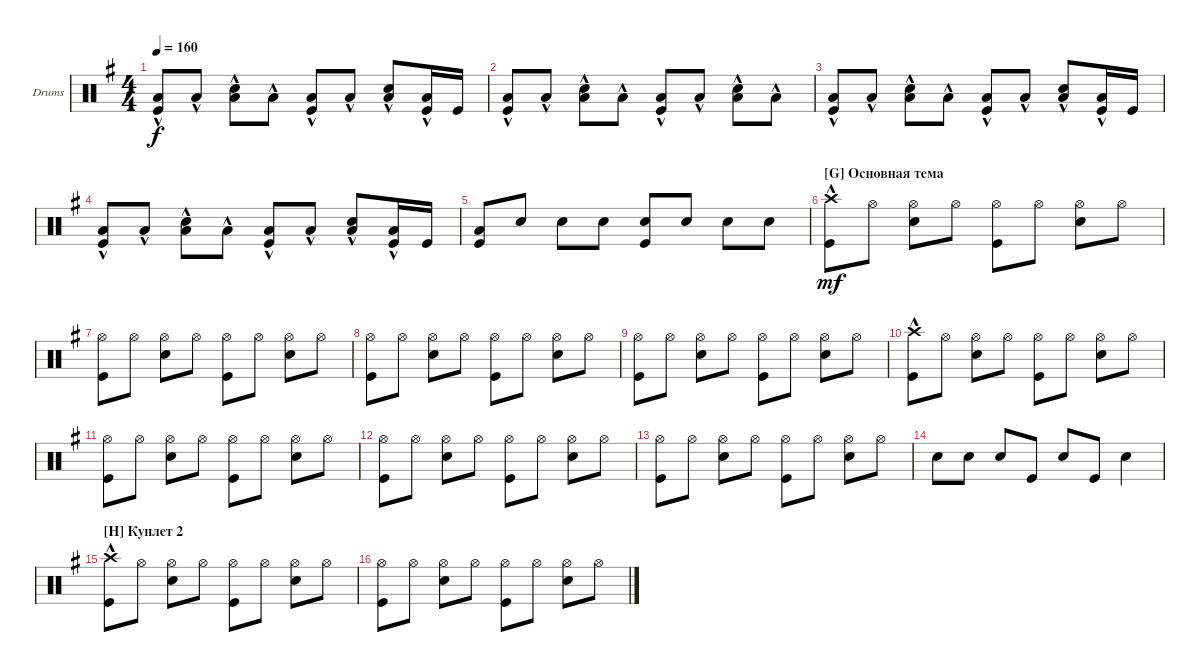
\defaultSystemsLayout 4
\bracketExtendMode groupsimilarinstruments
\firstSystemTrackNameOrientation horizontal
\otherSystemsTrackNameOrientation horizontal
\track ("Drumkit" "Drums") {instrument percussion}
\staff {score}
\articulation defaults
\ts (4 4)
\tempo 160
\clef neutral
\ks eminor
("Kick (hit)" "Low Tom (hit)"{hac}).8{dy f} "Low Tom (hit)"{hac}.8 ("Snare (hit) 2" "Low Tom (hit)"{hac}).8 "Low Tom (hit)"{hac}.8 ("Kick (hit)" "Low Tom (hit)"{hac}).8 "Low Tom (hit)"{hac}.8 ("Snare (hit) 2" "Low Tom (hit)"{hac}).8 ("Low Tom (hit)"{hac} "Kick (hit)").16 "Kick (hit)".16 |
("Kick (hit)" "Low Tom (hit)"{hac}).8 "Low Tom (hit)"{hac}.8 ("Snare (hit) 2" "Low Tom (hit)"{hac}).8 "Low Tom (hit)"{hac}.8 ("Kick (hit)" "Low Tom (hit)"{hac}).8 "Low Tom (hit)"{hac}.8 ("Snare (hit) 2" "Low Tom (hit)"{hac}).8 "Low Tom (hit)"{hac}.8 |
("Kick (hit)" "Low Tom (hit)"{hac}).8 "Low Tom (hit)"{hac}.8 ("Snare (hit) 2" "Low Tom (hit)"{hac}).8 "Low Tom (hit)"{hac}.8 ("Kick (hit)" "Low Tom (hit)"{hac}).8 "Low Tom (hit)"{hac}.8 ("Snare (hit) 2" "Low Tom (hit)"{hac}).8 ("Low Tom (hit)"{hac} "Kick (hit)").16 "Kick (hit)".16 |
("Kick (hit)" "Low Tom (hit)"{hac}).8 "Low Tom (hit)"{hac}.8 ("Snare (hit) 2" "Low Tom (hit)"{hac}).8 "Low Tom (hit)"{hac}.8 ("Kick (hit)" "Low Tom (hit)"{hac}).8 "Low Tom (hit)"{hac}.8 ("Snare (hit) 2" "Low Tom (hit)"{hac}).8 ("Low Tom (hit)"{hac} "Kick (hit)").16 "Kick (hit)".16 |
("Kick (hit)" "Low Tom (hit)").8 "Snare (hit) 2".8 "Snare (hit) 2".8 "Snare (hit) 2".8 ("Kick (hit)" "Snare (hit) 2").8 "Snare (hit) 2".8 "Snare (hit) 2".8 "Snare (hit) 2".8 |
\section ("G" "Основная тема")
("Kick (hit)" "Crash high (hit)"{hac}).8{dy mf} "Hi-Hat (open)".8 ("Hi-Hat (open)" "Snare (hit) 2").8 "Hi-Hat (open)".8 ("Hi-Hat (open)" "Kick (hit)").8 "Hi-Hat (open)".8 ("Hi-Hat (open)" "Snare (hit) 2").8 "Hi-Hat (open)".8 |
("Hi-Hat (open)" "Kick (hit)").8 "Hi-Hat (open)".8 ("Hi-Hat (open)" "Snare (hit) 2").8 "Hi-Hat (open)".8 ("Hi-Hat (open)" "Kick (hit)").8 "Hi-Hat (open)".8 ("Hi-Hat (open)" "Snare (hit) 2").8 "Hi-Hat (open)".8 |
("Hi-Hat (open)" "Kick (hit)").8 "Hi-Hat (open)".8 ("Hi-Hat (open)" "Snare (hit) 2").8 "Hi-Hat (open)".8 ("Hi-Hat (open)" "Kick (hit)").8 "Hi-Hat (open)".8 ("Hi-Hat (open)" "Snare (hit) 2").8 "Hi-Hat (open)".8 |
("Hi-Hat (open)" "Kick (hit)").8 "Hi-Hat (open)".8 ("Hi-Hat (open)" "Snare (hit) 2").8 "Hi-Hat (open)".8 ("Hi-Hat (open)" "Kick (hit)").8 "Hi-Hat (open)".8 ("Hi-Hat (open)" "Snare (hit) 2").8 "Hi-Hat (open)".8 |
("Kick (hit)" "Crash high (hit)"{hac}).8 "Hi-Hat (open)".8 ("Hi-Hat (open)" "Snare (hit) 2").8 "Hi-Hat (open)".8 ("Hi-Hat (open)" "Kick (hit)").8 "Hi-Hat (open)".8 ("Hi-Hat (open)" "Snare (hit) 2").8 "Hi-Hat (open)".8 |
("Hi-Hat (open)" "Kick (hit)").8 "Hi-Hat (open)".8 ("Hi-Hat (open)" "Snare (hit) 2").8 "Hi-Hat (open)".8 ("Hi-Hat (open)" "Kick (hit)").8 "Hi-Hat (open)".8 ("Hi-Hat (open)" "Snare (hit) 2").8 "Hi-Hat (open)".8 |
("Hi-Hat (open)" "Kick (hit)").8 "Hi-Hat (open)".8 ("Hi-Hat (open)" "Snare (hit) 2").8 "Hi-Hat (open)".8 ("Hi-Hat (open)" "Kick (hit)").8 "Hi-Hat (open)".8 ("Hi-Hat (open)" "Snare (hit) 2").8 "Hi-Hat (open)".8 |
("Hi-Hat (open)" "Kick (hit)").8 "Hi-Hat (open)".8 ("Hi-Hat (open)" "Snare (hit) 2").8 "Hi-Hat (open)".8 ("Hi-Hat (open)" "Kick (hit)").8 "Hi-Hat (open)".8 ("Hi-Hat (open)" "Snare (hit) 2").8 "Hi-Hat (open)".8 |
"Snare (hit) 2".8 "Snare (hit) 2".8 "Snare (hit) 2".8 "Kick (hit)".8 "Snare (hit) 2".8 "Kick (hit)".8 "Snare (hit) 2".4 |
\section ("H" "Куплет 2")
("Kick (hit)" "Crash high (hit)"{hac}).8 "Hi-Hat (open)".8 ("Hi-Hat (open)" "Snare (hit) 2").8 "Hi-Hat (open)".8 ("Hi-Hat (open)" "Kick (hit)").8 "Hi-Hat (open)".8 ("Hi-Hat (open)" "Snare (hit) 2").8 "Hi-Hat (open)".8 |
("Hi-Hat (open)" "Kick (hit)").8 "Hi-Hat (open)".8 ("Hi-Hat (open)" "Snare (hit) 2").8 "Hi-Hat (open)".8 ("Hi-Hat (open)" "Kick (hit)").8 "Hi-Hat (open)".8 ("Hi-Hat (open)" "Snare (hit) 2").8 "Hi-Hat (open)".8
